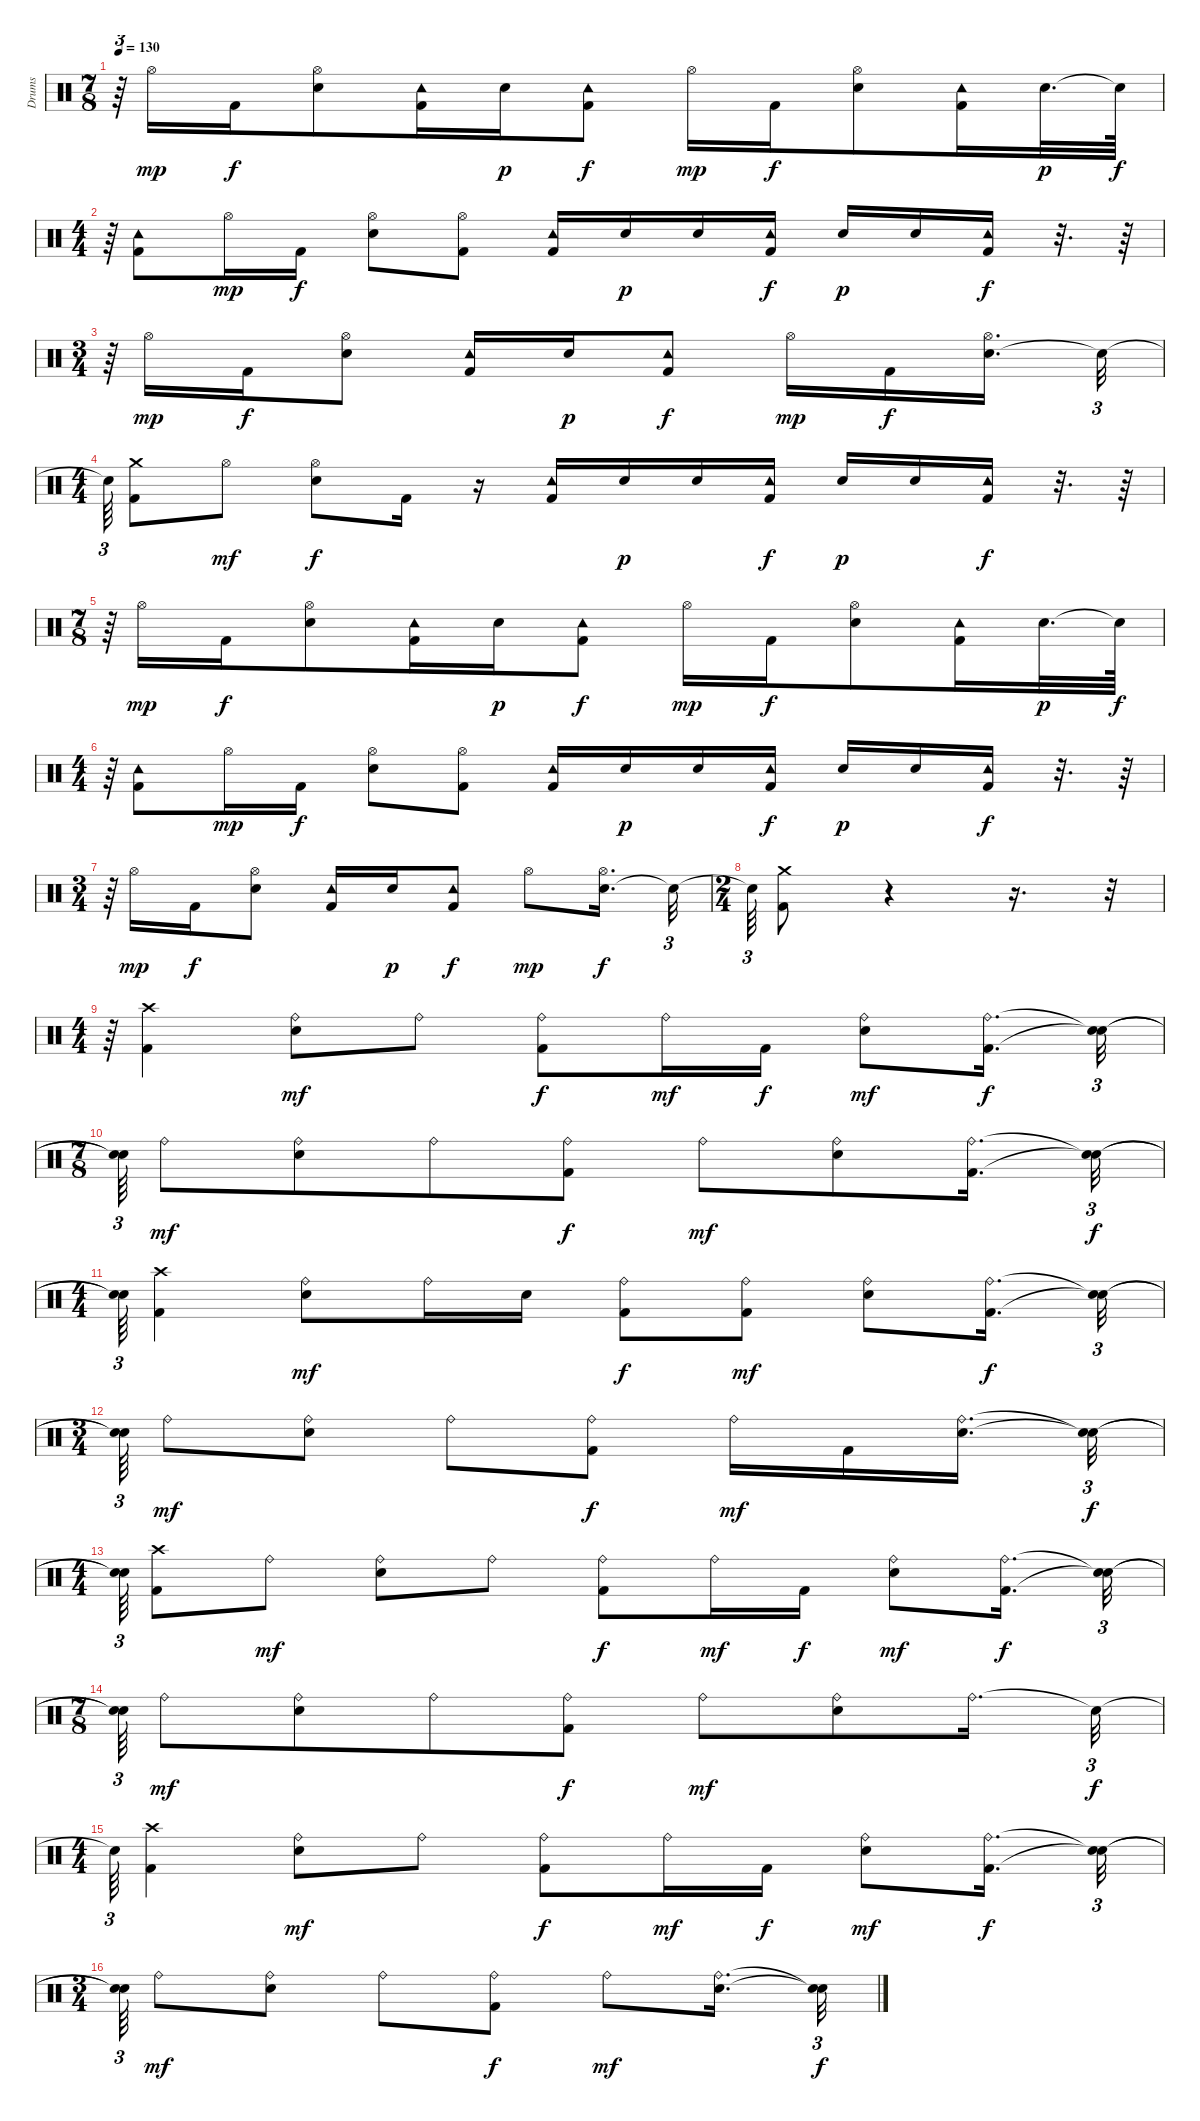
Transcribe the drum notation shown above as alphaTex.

\track ("Drums" "Drums") {instrument percussion}
\staff {score}
\articulation defaults
\ts (7 8)
\tempo 130
\clef neutral
\ks c
r.64{tu (3 2) dy f} "Hi-Hat (open)".16{dy mp} "Kick (hit) 2".16{dy f} ("Electric Snare (hit)" "Hi-Hat (open)").8 ("Kick (hit) 2" "Tambourine (hit)").16 "Electric Snare (hit)".16{dy p} ("Kick (hit) 2" "Tambourine (hit)").8{dy f} "Hi-Hat (open)".16{dy mp} "Kick (hit) 2".16{dy f} ("Electric Snare (hit)" "Hi-Hat (open)").8 ("Kick (hit) 2" "Tambourine (hit)").16 "Electric Snare (hit)".32{d dy p} "Snare (hit)"{t}.64{dy f} |
\ts (4 4)
r.64{tu (3 2)} ("Kick (hit) 2" "Tambourine (hit)").8 "Hi-Hat (open)".16{dy mp} "Kick (hit) 2".16{dy f} ("Electric Snare (hit)" "Hi-Hat (open)").8 ("Kick (hit) 2" "Hi-Hat (open)").8 ("Kick (hit) 2" "Tambourine (hit)").16 "Electric Snare (hit)".16{dy p} "Electric Snare (hit)".16 ("Kick (hit) 2" "Tambourine (hit)").16{dy f} "Electric Snare (hit)".16{dy p} "Electric Snare (hit)".16 ("Kick (hit) 2" "Tambourine (hit)").16{dy f} r.32{d} r.64 |
\ts (3 4)
r.64{tu (3 2)} "Hi-Hat (open)".16{dy mp} "Kick (hit) 2".16{dy f} ("Electric Snare (hit)" "Hi-Hat (open)").8 ("Kick (hit) 2" "Tambourine (hit)").16 "Electric Snare (hit)".16{dy p} ("Kick (hit) 2" "Tambourine (hit)").8{dy f} "Hi-Hat (open)".16{dy mp} "Kick (hit) 2".16{dy f} ("Electric Snare (hit)" "Hi-Hat (open)").16{d} "Snare (hit)"{t}.32{tu (3 2)} |
\ts (4 4)
"Snare (hit)"{t}.64{tu (3 2)} ("Crash medium (hit)" "Kick (hit) 2").8 "Hi-Hat (open)".8{dy mf} ("Electric Snare (hit)" "Hi-Hat (open)").8{dy f} "Kick (hit) 2".16 r.16 ("Kick (hit) 2" "Tambourine (hit)").16 "Electric Snare (hit)".16{dy p} "Electric Snare (hit)".16 ("Kick (hit) 2" "Tambourine (hit)").16{dy f} "Electric Snare (hit)".16{dy p} "Electric Snare (hit)".16 ("Kick (hit) 2" "Tambourine (hit)").16{dy f} r.32{d} r.64 |
\ts (7 8)
r.64{tu (3 2)} "Hi-Hat (open)".16{dy mp} "Kick (hit) 2".16{dy f} ("Electric Snare (hit)" "Hi-Hat (open)").8 ("Kick (hit) 2" "Tambourine (hit)").16 "Electric Snare (hit)".16{dy p} ("Kick (hit) 2" "Tambourine (hit)").8{dy f} "Hi-Hat (open)".16{dy mp} "Kick (hit) 2".16{dy f} ("Electric Snare (hit)" "Hi-Hat (open)").8 ("Kick (hit) 2" "Tambourine (hit)").16 "Electric Snare (hit)".32{d dy p} "Snare (hit)"{t}.64{dy f} |
\ts (4 4)
r.64{tu (3 2)} ("Kick (hit) 2" "Tambourine (hit)").8 "Hi-Hat (open)".16{dy mp} "Kick (hit) 2".16{dy f} ("Electric Snare (hit)" "Hi-Hat (open)").8 ("Kick (hit) 2" "Hi-Hat (open)").8 ("Kick (hit) 2" "Tambourine (hit)").16 "Electric Snare (hit)".16{dy p} "Electric Snare (hit)".16 ("Kick (hit) 2" "Tambourine (hit)").16{dy f} "Electric Snare (hit)".16{dy p} "Electric Snare (hit)".16 ("Kick (hit) 2" "Tambourine (hit)").16{dy f} r.32{d} r.64 |
\ts (3 4)
r.64{tu (3 2)} "Hi-Hat (open)".16{dy mp} "Kick (hit) 2".16{dy f} ("Electric Snare (hit)" "Hi-Hat (open)").8 ("Kick (hit) 2" "Tambourine (hit)").16 "Electric Snare (hit)".16{dy p} ("Kick (hit) 2" "Tambourine (hit)").8{dy f} "Hi-Hat (open)".8{dy mp} ("Electric Snare (hit)" "Hi-Hat (open)").16{d dy f} "Snare (hit)"{t}.32{tu (3 2)} |
\ts (2 4)
"Snare (hit)"{t}.64{tu (3 2)} ("Kick (hit) 2" "Crash medium (hit)").8 r.4 r.16{d} r.32{tu (3 2)} |
\ts (4 4)
r.64{tu (3 2)} ("Kick (hit) 2" "Crash high (hit)").4{volume 11} ("Electric Snare (hit)" "Ride (bell)").8{dy mf} "Ride (bell)".8 ("Kick (hit) 2" "Ride (bell)").8{dy f} "Ride (bell)".16{dy mf} "Kick (hit) 2".16{dy f} ("Electric Snare (hit)" "Ride (bell)").8{dy mf} ("Kick (hit) 2" "Ride (bell)").16{d dy f} ("Snare (hit)"{t} "Snare (hit)"{t}).32{tu (3 2)} |
\ts (7 8)
("Snare (hit)"{t} "Snare (hit)"{t}).64{tu (3 2)} "Ride (bell)".8{dy mf} ("Electric Snare (hit)" "Ride (bell)").8 "Ride (bell)".8 ("Kick (hit) 2" "Ride (bell)").8{dy f} "Ride (bell)".8{dy mf} ("Electric Snare (hit)" "Ride (bell)").8 ("Kick (hit) 2" "Ride (bell)").16{d} ("Snare (hit)"{t} "Snare (hit)"{t}).32{tu (3 2) dy f} |
\ts (4 4)
("Snare (hit)"{t} "Snare (hit)"{t}).64{tu (3 2)} ("Crash high (hit)" "Kick (hit) 2").4 ("Ride (bell)" "Electric Snare (hit)").8{dy mf} "Ride (bell)".16 "Electric Snare (hit)".16 ("Ride (bell)" "Kick (hit) 2").8{dy f} ("Ride (bell)" "Kick (hit) 2").8{dy mf} ("Electric Snare (hit)" "Ride (bell)").8 ("Kick (hit) 2" "Ride (bell)").16{d dy f} ("Snare (hit)"{t} "Snare (hit)"{t}).32{tu (3 2)} |
\ts (3 4)
("Snare (hit)"{t} "Snare (hit)"{t}).64{tu (3 2)} "Ride (bell)".8{dy mf} ("Electric Snare (hit)" "Ride (bell)").8 "Ride (bell)".8 ("Kick (hit) 2" "Ride (bell)").8{dy f} "Ride (bell)".16{dy mf} "Kick (hit) 2".16 ("Electric Snare (hit)" "Ride (bell)").16{d} ("Snare (hit)"{t} "Snare (hit)"{t}).32{tu (3 2) dy f} |
\ts (4 4)
("Snare (hit)"{t} "Snare (hit)"{t}).64{tu (3 2)} ("Crash high (hit)" "Kick (hit) 2").8 "Ride (bell)".8{dy mf} ("Electric Snare (hit)" "Ride (bell)").8 "Ride (bell)".8 ("Kick (hit) 2" "Ride (bell)").8{dy f} "Ride (bell)".16{dy mf} "Kick (hit) 2".16{dy f} ("Electric Snare (hit)" "Ride (bell)").8{dy mf} ("Kick (hit) 2" "Ride (bell)").16{d dy f} ("Snare (hit)"{t} "Snare (hit)"{t}).32{tu (3 2)} |
\ts (7 8)
("Snare (hit)"{t} "Snare (hit)"{t}).64{tu (3 2)} "Ride (bell)".8{dy mf} ("Electric Snare (hit)" "Ride (bell)").8 "Ride (bell)".8 ("Kick (hit) 2" "Ride (bell)").8{dy f} "Ride (bell)".8{dy mf} ("Electric Snare (hit)" "Ride (bell)").8 "Ride (bell)".16{d} "Snare (hit)"{t}.32{tu (3 2) dy f} |
\ts (4 4)
"Snare (hit)"{t}.64{tu (3 2)} ("Crash high (hit)" "Kick (hit) 2").4 ("Ride (bell)" "Electric Snare (hit)").8{dy mf} "Ride (bell)".8 ("Ride (bell)" "Kick (hit) 2").8{dy f} "Ride (bell)".16{dy mf} "Kick (hit) 2".16{dy f} ("Electric Snare (hit)" "Ride (bell)").8{dy mf} ("Kick (hit) 2" "Ride (bell)").16{d dy f} ("Snare (hit)"{t} "Snare (hit)"{t}).32{tu (3 2)} |
\ts (3 4)
("Snare (hit)"{t} "Snare (hit)"{t}).64{tu (3 2)} "Ride (bell)".8{dy mf} ("Electric Snare (hit)" "Ride (bell)").8 "Ride (bell)".8 ("Kick (hit) 2" "Ride (bell)").8{dy f} "Ride (bell)".8{dy mf} ("Electric Snare (hit)" "Ride (bell)").16{d} ("Snare (hit)"{t} "Snare (hit)"{t}).32{tu (3 2) dy f}
